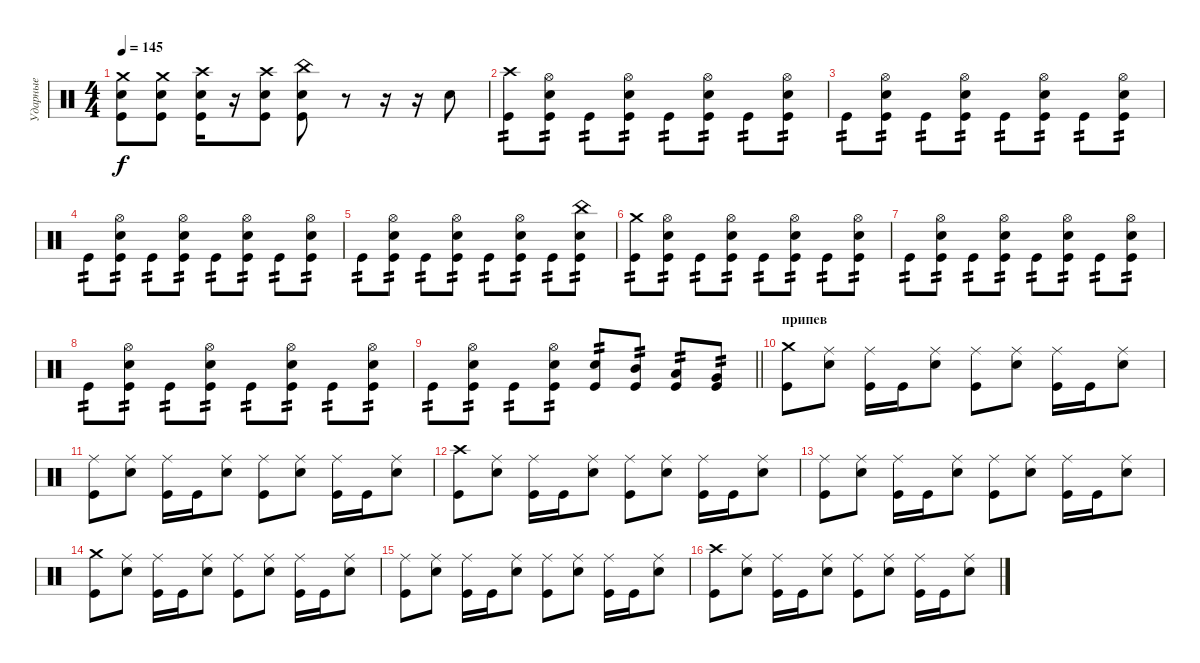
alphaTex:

\track ("Ударные" "Ударные") {instrument percussion}
\staff {score}
\articulation defaults
\ts (4 4)
\tempo 145
\clef neutral
\ks c
("Crash medium (hit)" "Electric Snare (hit)" "Kick (hit)").8{dy f} ("Crash medium (hit)" "Electric Snare (hit)" "Kick (hit)").8 ("Crash high (hit)" "Electric Snare (hit)" "Kick (hit)").16 r.16 ("Crash high (hit)" "Electric Snare (hit)" "Kick (hit)").8 ("China (hit)" "Electric Snare (hit)" "Kick (hit)").8 r.8 r.16 r.16 "Snare (hit)".8 |
("Crash high (hit)" "Kick (hit)").8{tp 2} ("Hi-Hat (open)" "Electric Snare (hit)" "Kick (hit)").8{tp 2} "Kick (hit)".8{tp 2} ("Hi-Hat (open)" "Electric Snare (hit)" "Kick (hit)").8{tp 2} "Kick (hit)".8{tp 2} ("Hi-Hat (open)" "Electric Snare (hit)" "Kick (hit)").8{tp 2} "Kick (hit)".8{tp 2} ("Hi-Hat (open)" "Electric Snare (hit)" "Kick (hit)").8{tp 2} |
"Kick (hit)".8{tp 2} ("Hi-Hat (open)" "Electric Snare (hit)" "Kick (hit)").8{tp 2} "Kick (hit)".8{tp 2} ("Hi-Hat (open)" "Electric Snare (hit)" "Kick (hit)").8{tp 2} "Kick (hit)".8{tp 2} ("Hi-Hat (open)" "Electric Snare (hit)" "Kick (hit)").8{tp 2} "Kick (hit)".8{tp 2} ("Hi-Hat (open)" "Electric Snare (hit)" "Kick (hit)").8{tp 2} |
"Kick (hit)".8{tp 2} ("Hi-Hat (open)" "Electric Snare (hit)" "Kick (hit)").8{tp 2} "Kick (hit)".8{tp 2} ("Hi-Hat (open)" "Electric Snare (hit)" "Kick (hit)").8{tp 2} "Kick (hit)".8{tp 2} ("Hi-Hat (open)" "Electric Snare (hit)" "Kick (hit)").8{tp 2} "Kick (hit)".8{tp 2} ("Hi-Hat (open)" "Electric Snare (hit)" "Kick (hit)").8{tp 2} |
"Kick (hit)".8{tp 2} ("Hi-Hat (open)" "Electric Snare (hit)" "Kick (hit)").8{tp 2} "Kick (hit)".8{tp 2} ("Hi-Hat (open)" "Electric Snare (hit)" "Kick (hit)").8{tp 2} "Kick (hit)".8{tp 2} ("Hi-Hat (open)" "Electric Snare (hit)" "Kick (hit)").8{tp 2} "Kick (hit)".8{tp 2} ("China (hit)" "Electric Snare (hit)" "Kick (hit)").8{tp 2} |
("Crash medium (hit)" "Kick (hit)").8{tp 2} ("Hi-Hat (open)" "Electric Snare (hit)" "Kick (hit)").8{tp 2} "Kick (hit)".8{tp 2} ("Hi-Hat (open)" "Electric Snare (hit)" "Kick (hit)").8{tp 2} "Kick (hit)".8{tp 2} ("Hi-Hat (open)" "Electric Snare (hit)" "Kick (hit)").8{tp 2} "Kick (hit)".8{tp 2} ("Hi-Hat (open)" "Electric Snare (hit)" "Kick (hit)").8{tp 2} |
"Kick (hit)".8{tp 2} ("Hi-Hat (open)" "Electric Snare (hit)" "Kick (hit)").8{tp 2} "Kick (hit)".8{tp 2} ("Hi-Hat (open)" "Electric Snare (hit)" "Kick (hit)").8{tp 2} "Kick (hit)".8{tp 2} ("Hi-Hat (open)" "Electric Snare (hit)" "Kick (hit)").8{tp 2} "Kick (hit)".8{tp 2} ("Hi-Hat (open)" "Electric Snare (hit)" "Kick (hit)").8{tp 2} |
"Kick (hit)".8{tp 2} ("Hi-Hat (open)" "Electric Snare (hit)" "Kick (hit)").8{tp 2} "Kick (hit)".8{tp 2} ("Hi-Hat (open)" "Electric Snare (hit)" "Kick (hit)").8{tp 2} "Kick (hit)".8{tp 2} ("Hi-Hat (open)" "Electric Snare (hit)" "Kick (hit)").8{tp 2} "Kick (hit)".8{tp 2} ("Hi-Hat (open)" "Electric Snare (hit)" "Kick (hit)").8{tp 2} |
\barLineRight lightlight "Kick (hit)".8{tp 2}
("Hi-Hat (open)" "Electric Snare (hit)" "Kick (hit)").8{tp 2} "Kick (hit)".8{tp 2} ("Hi-Hat (open)" "Electric Snare (hit)" "Kick (hit)").8{tp 2} ("Electric Snare (hit)" "Kick (hit)").8{tp 2} ("Mid Tom (hit)" "Kick (hit)").8{tp 2} ("Low Tom (hit)" "Kick (hit)").8{tp 2} ("Very Low Tom (hit)" "Kick (hit)").8{tp 2} |
\section ("" "припев")
("Crash medium (hit)" "Kick (hit)").8 ("Ride (middle)" "Electric Snare (hit)").8 ("Ride (middle)" "Kick (hit)").16 "Kick (hit)".16 ("Ride (middle)" "Electric Snare (hit)").8 ("Ride (middle)" "Kick (hit)").8 ("Ride (middle)" "Electric Snare (hit)").8 ("Ride (middle)" "Kick (hit)").16 "Kick (hit)".16 ("Ride (middle)" "Electric Snare (hit)").8 |
("Ride (middle)" "Kick (hit)").8 ("Ride (middle)" "Electric Snare (hit)").8 ("Ride (middle)" "Kick (hit)").16 "Kick (hit)".16 ("Ride (middle)" "Electric Snare (hit)").8 ("Ride (middle)" "Kick (hit)").8 ("Ride (middle)" "Electric Snare (hit)").8 ("Ride (middle)" "Kick (hit)").16 "Kick (hit)".16 ("Ride (middle)" "Electric Snare (hit)").8 |
("Crash high (hit)" "Kick (hit)").8 ("Ride (middle)" "Electric Snare (hit)").8 ("Ride (middle)" "Kick (hit)").16 "Kick (hit)".16 ("Ride (middle)" "Electric Snare (hit)").8 ("Ride (middle)" "Kick (hit)").8 ("Ride (middle)" "Electric Snare (hit)").8 ("Ride (middle)" "Kick (hit)").16 "Kick (hit)".16 ("Ride (middle)" "Electric Snare (hit)").8 |
("Ride (middle)" "Kick (hit)").8 ("Ride (middle)" "Electric Snare (hit)").8 ("Ride (middle)" "Kick (hit)").16 "Kick (hit)".16 ("Ride (middle)" "Electric Snare (hit)").8 ("Ride (middle)" "Kick (hit)").8 ("Ride (middle)" "Electric Snare (hit)").8 ("Ride (middle)" "Kick (hit)").16 "Kick (hit)".16 ("Ride (middle)" "Electric Snare (hit)").8 |
("Crash medium (hit)" "Kick (hit)").8 ("Ride (middle)" "Electric Snare (hit)").8 ("Ride (middle)" "Kick (hit)").16 "Kick (hit)".16 ("Ride (middle)" "Electric Snare (hit)").8 ("Ride (middle)" "Kick (hit)").8 ("Ride (middle)" "Electric Snare (hit)").8 ("Ride (middle)" "Kick (hit)").16 "Kick (hit)".16 ("Ride (middle)" "Electric Snare (hit)").8 |
("Ride (middle)" "Kick (hit)").8 ("Ride (middle)" "Electric Snare (hit)").8 ("Ride (middle)" "Kick (hit)").16 "Kick (hit)".16 ("Ride (middle)" "Electric Snare (hit)").8 ("Ride (middle)" "Kick (hit)").8 ("Ride (middle)" "Electric Snare (hit)").8 ("Ride (middle)" "Kick (hit)").16 "Kick (hit)".16 ("Ride (middle)" "Electric Snare (hit)").8 |
("Crash high (hit)" "Kick (hit)").8 ("Ride (middle)" "Electric Snare (hit)").8 ("Ride (middle)" "Kick (hit)").16 "Kick (hit)".16 ("Ride (middle)" "Electric Snare (hit)").8 ("Ride (middle)" "Kick (hit)").8 ("Ride (middle)" "Electric Snare (hit)").8 ("Ride (middle)" "Kick (hit)").16 "Kick (hit)".16 ("Ride (middle)" "Electric Snare (hit)").8
